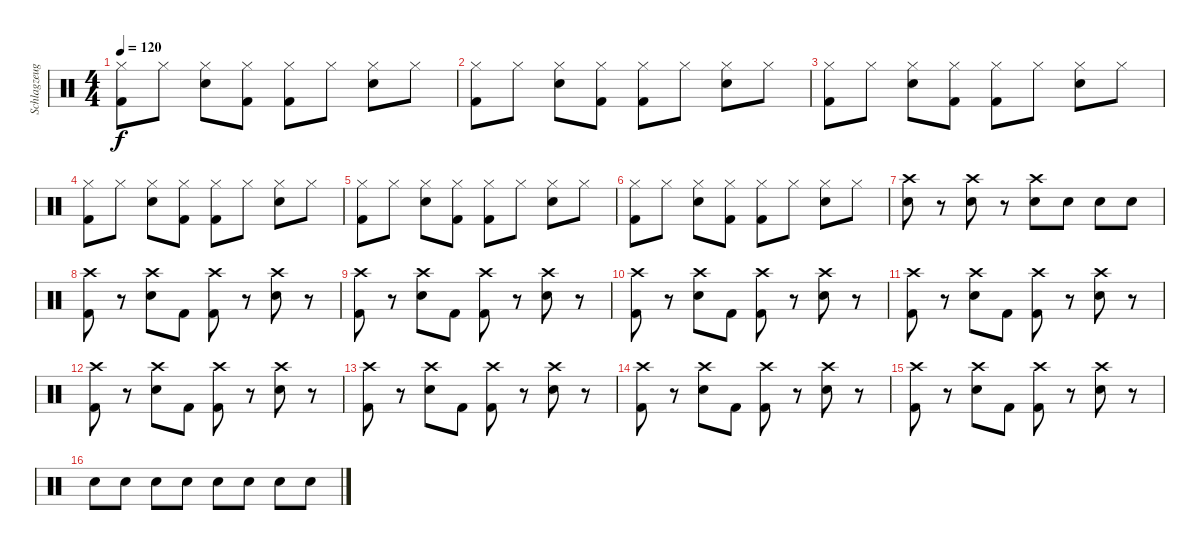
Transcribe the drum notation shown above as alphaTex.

\track ("Schlagzeug" "Schlagzeug") {instrument percussion}
\staff {score}
\articulation defaults
\ts (4 4)
\tempo 120
\clef neutral
\ks c
("Hi-Hat (closed)" "Kick (hit) 2").8{dy f} "Hi-Hat (closed)".8 ("Hi-Hat (closed)" "Electric Snare (hit)").8 ("Hi-Hat (closed)" "Kick (hit) 2").8 ("Hi-Hat (closed)" "Kick (hit) 2").8 "Hi-Hat (closed)".8 ("Hi-Hat (closed)" "Electric Snare (hit)").8 "Hi-Hat (closed)".8 |
("Hi-Hat (closed)" "Kick (hit) 2").8 "Hi-Hat (closed)".8 ("Hi-Hat (closed)" "Electric Snare (hit)").8 ("Hi-Hat (closed)" "Kick (hit) 2").8 ("Hi-Hat (closed)" "Kick (hit) 2").8 "Hi-Hat (closed)".8 ("Hi-Hat (closed)" "Electric Snare (hit)").8 "Hi-Hat (closed)".8 |
("Hi-Hat (closed)" "Kick (hit) 2").8 "Hi-Hat (closed)".8 ("Hi-Hat (closed)" "Electric Snare (hit)").8 ("Hi-Hat (closed)" "Kick (hit) 2").8 ("Hi-Hat (closed)" "Kick (hit) 2").8 "Hi-Hat (closed)".8 ("Hi-Hat (closed)" "Electric Snare (hit)").8 "Hi-Hat (closed)".8 |
("Hi-Hat (closed)" "Kick (hit) 2").8 "Hi-Hat (closed)".8 ("Hi-Hat (closed)" "Electric Snare (hit)").8 ("Hi-Hat (closed)" "Kick (hit) 2").8 ("Hi-Hat (closed)" "Kick (hit) 2").8 "Hi-Hat (closed)".8 ("Hi-Hat (closed)" "Electric Snare (hit)").8 "Hi-Hat (closed)".8 |
("Hi-Hat (closed)" "Kick (hit) 2").8 "Hi-Hat (closed)".8 ("Hi-Hat (closed)" "Electric Snare (hit)").8 ("Hi-Hat (closed)" "Kick (hit) 2").8 ("Hi-Hat (closed)" "Kick (hit) 2").8 "Hi-Hat (closed)".8 ("Hi-Hat (closed)" "Electric Snare (hit)").8 "Hi-Hat (closed)".8 |
("Hi-Hat (closed)" "Kick (hit) 2").8 "Hi-Hat (closed)".8 ("Hi-Hat (closed)" "Electric Snare (hit)").8 ("Hi-Hat (closed)" "Kick (hit) 2").8 ("Hi-Hat (closed)" "Kick (hit) 2").8 "Hi-Hat (closed)".8 ("Hi-Hat (closed)" "Electric Snare (hit)").8 "Hi-Hat (closed)".8 |
("Crash high (hit)" "Electric Snare (hit)").8 r.8 ("Crash high (hit)" "Electric Snare (hit)").8 r.8 ("Crash high (hit)" "Electric Snare (hit)").8 "Electric Snare (hit)".8 "Electric Snare (hit)".8 "Electric Snare (hit)".8 |
("Crash high (hit)" "Kick (hit) 2").8 r.8 ("Crash high (hit)" "Electric Snare (hit)").8 "Kick (hit) 2".8 ("Crash high (hit)" "Kick (hit) 2").8 r.8 ("Crash high (hit)" "Electric Snare (hit)").8 r.8 |
("Crash high (hit)" "Kick (hit) 2").8 r.8 ("Crash high (hit)" "Electric Snare (hit)").8 "Kick (hit) 2".8 ("Crash high (hit)" "Kick (hit) 2").8 r.8 ("Crash high (hit)" "Electric Snare (hit)").8 r.8 |
("Crash high (hit)" "Kick (hit) 2").8 r.8 ("Crash high (hit)" "Electric Snare (hit)").8 "Kick (hit) 2".8 ("Crash high (hit)" "Kick (hit) 2").8 r.8 ("Crash high (hit)" "Electric Snare (hit)").8 r.8 |
("Crash high (hit)" "Kick (hit) 2").8 r.8 ("Crash high (hit)" "Electric Snare (hit)").8 "Kick (hit) 2".8 ("Crash high (hit)" "Kick (hit) 2").8 r.8 ("Crash high (hit)" "Electric Snare (hit)").8 r.8 |
("Crash high (hit)" "Kick (hit) 2").8 r.8 ("Crash high (hit)" "Electric Snare (hit)").8 "Kick (hit) 2".8 ("Crash high (hit)" "Kick (hit) 2").8 r.8 ("Crash high (hit)" "Electric Snare (hit)").8 r.8 |
("Crash high (hit)" "Kick (hit) 2").8 r.8 ("Crash high (hit)" "Electric Snare (hit)").8 "Kick (hit) 2".8 ("Crash high (hit)" "Kick (hit) 2").8 r.8 ("Crash high (hit)" "Electric Snare (hit)").8 r.8 |
("Crash high (hit)" "Kick (hit) 2").8 r.8 ("Crash high (hit)" "Electric Snare (hit)").8 "Kick (hit) 2".8 ("Crash high (hit)" "Kick (hit) 2").8 r.8 ("Crash high (hit)" "Electric Snare (hit)").8 r.8 |
("Crash high (hit)" "Kick (hit) 2").8 r.8 ("Crash high (hit)" "Electric Snare (hit)").8 "Kick (hit) 2".8 ("Crash high (hit)" "Kick (hit) 2").8 r.8 ("Crash high (hit)" "Electric Snare (hit)").8 r.8 |
"Electric Snare (hit)".8 "Electric Snare (hit)".8 "Electric Snare (hit)".8 "Electric Snare (hit)".8 "Electric Snare (hit)".8 "Electric Snare (hit)".8 "Electric Snare (hit)".8 "Electric Snare (hit)".8
